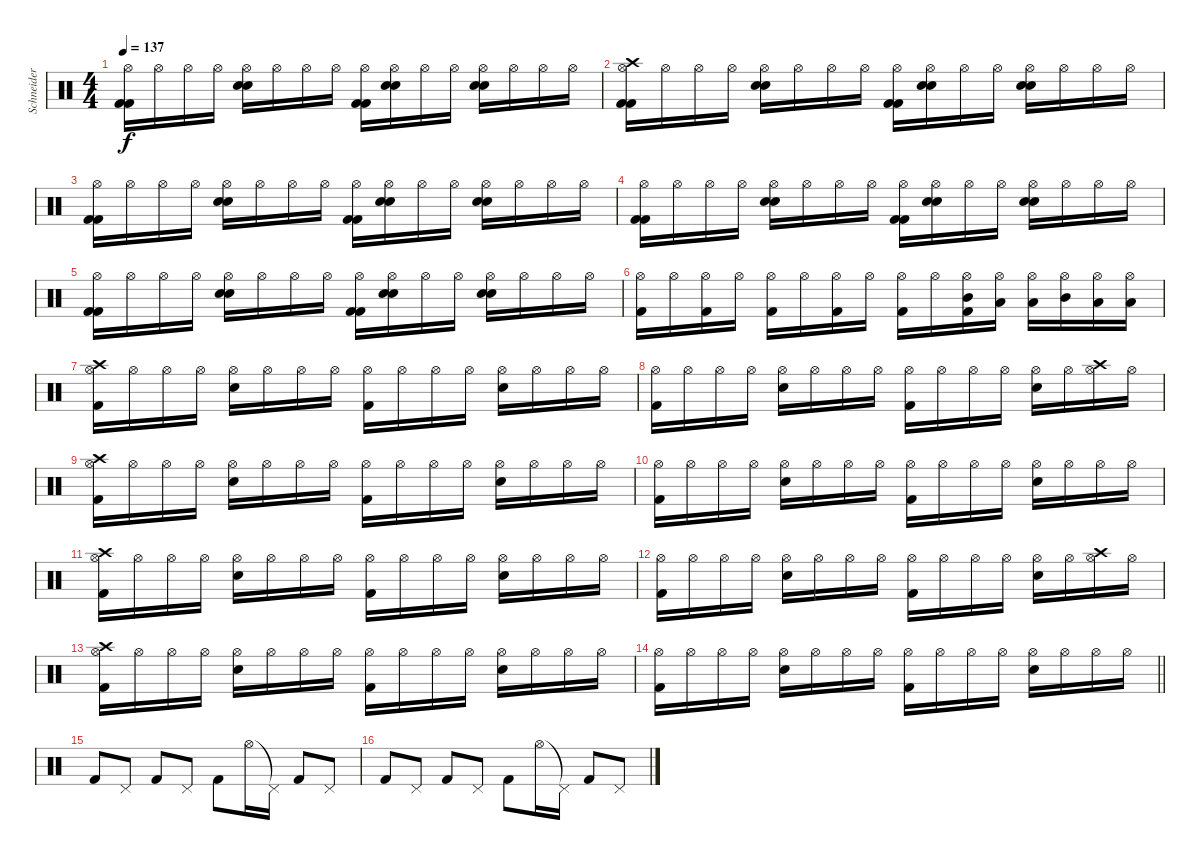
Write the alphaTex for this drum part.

\track ("Schneider" "Schneider") {instrument percussion}
\staff {score}
\articulation defaults
\ts (4 4)
\tempo 137
\clef neutral
\ks c
("Hi-Hat (open)" "Kick (hit) 2" "Kick (hit) 2").16{dy f} "Hi-Hat (open)".16 "Hi-Hat (open)".16 "Hi-Hat (open)".16 ("Hi-Hat (open)" "Electric Snare (hit)" "Electric Snare (hit)").16 "Hi-Hat (open)".16 "Hi-Hat (open)".16 "Hi-Hat (open)".16 ("Hi-Hat (open)" "Kick (hit) 2" "Kick (hit) 2").16 ("Hi-Hat (open)" "Electric Snare (hit)" "Electric Snare (hit)").16 "Hi-Hat (open)".16 "Hi-Hat (open)".16 ("Hi-Hat (open)" "Electric Snare (hit)" "Electric Snare (hit)").16 "Hi-Hat (open)".16 "Hi-Hat (open)".16 "Hi-Hat (open)".16 |
("Crash high (hit)" "Hi-Hat (open)" "Kick (hit) 2" "Kick (hit) 2").16 "Hi-Hat (open)".16 "Hi-Hat (open)".16 "Hi-Hat (open)".16 ("Hi-Hat (open)" "Electric Snare (hit)" "Electric Snare (hit)").16 "Hi-Hat (open)".16 "Hi-Hat (open)".16 "Hi-Hat (open)".16 ("Hi-Hat (open)" "Kick (hit) 2" "Kick (hit) 2").16 ("Hi-Hat (open)" "Electric Snare (hit)" "Electric Snare (hit)").16 "Hi-Hat (open)".16 "Hi-Hat (open)".16 ("Hi-Hat (open)" "Electric Snare (hit)" "Electric Snare (hit)").16 "Hi-Hat (open)".16 "Hi-Hat (open)".16 "Hi-Hat (open)".16 |
("Hi-Hat (open)" "Kick (hit) 2" "Kick (hit) 2").16 "Hi-Hat (open)".16 "Hi-Hat (open)".16 "Hi-Hat (open)".16 ("Hi-Hat (open)" "Electric Snare (hit)" "Electric Snare (hit)").16 "Hi-Hat (open)".16 "Hi-Hat (open)".16 "Hi-Hat (open)".16 ("Hi-Hat (open)" "Kick (hit) 2" "Kick (hit) 2").16 ("Hi-Hat (open)" "Electric Snare (hit)" "Electric Snare (hit)").16 "Hi-Hat (open)".16 "Hi-Hat (open)".16 ("Hi-Hat (open)" "Electric Snare (hit)" "Electric Snare (hit)").16 "Hi-Hat (open)".16 "Hi-Hat (open)".16 "Hi-Hat (open)".16 |
("Hi-Hat (open)" "Kick (hit) 2" "Kick (hit) 2").16 "Hi-Hat (open)".16 "Hi-Hat (open)".16 "Hi-Hat (open)".16 ("Hi-Hat (open)" "Electric Snare (hit)" "Electric Snare (hit)").16 "Hi-Hat (open)".16 "Hi-Hat (open)".16 "Hi-Hat (open)".16 ("Hi-Hat (open)" "Kick (hit) 2" "Kick (hit) 2").16 ("Hi-Hat (open)" "Electric Snare (hit)" "Electric Snare (hit)").16 "Hi-Hat (open)".16 "Hi-Hat (open)".16 ("Hi-Hat (open)" "Electric Snare (hit)" "Electric Snare (hit)").16 "Hi-Hat (open)".16 "Hi-Hat (open)".16 "Hi-Hat (open)".16 |
("Hi-Hat (open)" "Kick (hit) 2" "Kick (hit) 2").16 "Hi-Hat (open)".16 "Hi-Hat (open)".16 "Hi-Hat (open)".16 ("Hi-Hat (open)" "Electric Snare (hit)" "Electric Snare (hit)").16 "Hi-Hat (open)".16 "Hi-Hat (open)".16 "Hi-Hat (open)".16 ("Hi-Hat (open)" "Kick (hit) 2" "Kick (hit) 2").16 ("Hi-Hat (open)" "Electric Snare (hit)" "Electric Snare (hit)").16 "Hi-Hat (open)".16 "Hi-Hat (open)".16 ("Hi-Hat (open)" "Electric Snare (hit)" "Electric Snare (hit)").16 "Hi-Hat (open)".16 "Hi-Hat (open)".16 "Hi-Hat (open)".16 |
("Hi-Hat (open)" "Kick (hit) 2").16 "Hi-Hat (open)".16 ("Hi-Hat (open)" "Kick (hit) 2").16 "Hi-Hat (open)".16 ("Hi-Hat (open)" "Kick (hit) 2").16 "Hi-Hat (open)".16 ("Hi-Hat (open)" "Kick (hit) 2").16 "Hi-Hat (open)".16 ("Hi-Hat (open)" "Kick (hit) 2").16 "Hi-Hat (open)".16 ("Hi-Hat (open)" "Mid Tom (hit)" "Kick (hit) 2").16 ("Hi-Hat (open)" "Low Tom (hit)").16 ("Hi-Hat (open)" "Low Floor Tom (hit)").16 ("Hi-Hat (open)" "Mid Tom (hit)").16 ("Hi-Hat (open)" "Low Tom (hit)").16 ("Hi-Hat (open)" "Low Floor Tom (hit)").16 |
("Crash high (hit)" "Hi-Hat (open)" "Kick (hit) 2").16 "Hi-Hat (open)".16 "Hi-Hat (open)".16 "Hi-Hat (open)".16 ("Hi-Hat (open)" "Electric Snare (hit)").16 "Hi-Hat (open)".16 "Hi-Hat (open)".16 "Hi-Hat (open)".16 ("Hi-Hat (open)" "Kick (hit) 2").16 "Hi-Hat (open)".16 "Hi-Hat (open)".16 "Hi-Hat (open)".16 ("Hi-Hat (open)" "Electric Snare (hit)").16 "Hi-Hat (open)".16 "Hi-Hat (open)".16 "Hi-Hat (open)".16 |
("Hi-Hat (open)" "Kick (hit) 2").16 "Hi-Hat (open)".16 "Hi-Hat (open)".16 "Hi-Hat (open)".16 ("Hi-Hat (open)" "Electric Snare (hit)").16 "Hi-Hat (open)".16 "Hi-Hat (open)".16 "Hi-Hat (open)".16 ("Hi-Hat (open)" "Kick (hit) 2").16 "Hi-Hat (open)".16 "Hi-Hat (open)".16 "Hi-Hat (open)".16 ("Hi-Hat (open)" "Electric Snare (hit)").16 "Hi-Hat (open)".16 ("Crash high (hit)" "Hi-Hat (open)").16 "Hi-Hat (open)".16 |
("Crash high (hit)" "Hi-Hat (open)" "Kick (hit) 2").16 "Hi-Hat (open)".16 "Hi-Hat (open)".16 "Hi-Hat (open)".16 ("Hi-Hat (open)" "Electric Snare (hit)").16 "Hi-Hat (open)".16 "Hi-Hat (open)".16 "Hi-Hat (open)".16 ("Hi-Hat (open)" "Kick (hit) 2").16 "Hi-Hat (open)".16 "Hi-Hat (open)".16 "Hi-Hat (open)".16 ("Hi-Hat (open)" "Electric Snare (hit)").16 "Hi-Hat (open)".16 "Hi-Hat (open)".16 "Hi-Hat (open)".16 |
("Hi-Hat (open)" "Kick (hit) 2").16 "Hi-Hat (open)".16 "Hi-Hat (open)".16 "Hi-Hat (open)".16 ("Hi-Hat (open)" "Electric Snare (hit)").16 "Hi-Hat (open)".16 "Hi-Hat (open)".16 "Hi-Hat (open)".16 ("Hi-Hat (open)" "Kick (hit) 2").16 "Hi-Hat (open)".16 "Hi-Hat (open)".16 "Hi-Hat (open)".16 ("Hi-Hat (open)" "Electric Snare (hit)").16 "Hi-Hat (open)".16 "Hi-Hat (open)".16 "Hi-Hat (open)".16 |
("Crash high (hit)" "Hi-Hat (open)" "Kick (hit) 2").16 "Hi-Hat (open)".16 "Hi-Hat (open)".16 "Hi-Hat (open)".16 ("Hi-Hat (open)" "Electric Snare (hit)").16 "Hi-Hat (open)".16 "Hi-Hat (open)".16 "Hi-Hat (open)".16 ("Hi-Hat (open)" "Kick (hit) 2").16 "Hi-Hat (open)".16 "Hi-Hat (open)".16 "Hi-Hat (open)".16 ("Hi-Hat (open)" "Electric Snare (hit)").16 "Hi-Hat (open)".16 "Hi-Hat (open)".16 "Hi-Hat (open)".16 |
("Hi-Hat (open)" "Kick (hit) 2").16 "Hi-Hat (open)".16 "Hi-Hat (open)".16 "Hi-Hat (open)".16 ("Hi-Hat (open)" "Electric Snare (hit)").16 "Hi-Hat (open)".16 "Hi-Hat (open)".16 "Hi-Hat (open)".16 ("Hi-Hat (open)" "Kick (hit) 2").16 "Hi-Hat (open)".16 "Hi-Hat (open)".16 "Hi-Hat (open)".16 ("Hi-Hat (open)" "Electric Snare (hit)").16 "Hi-Hat (open)".16 ("Crash high (hit)" "Hi-Hat (open)").16 "Hi-Hat (open)".16 |
("Crash high (hit)" "Hi-Hat (open)" "Kick (hit) 2").16 "Hi-Hat (open)".16 "Hi-Hat (open)".16 "Hi-Hat (open)".16 ("Hi-Hat (open)" "Electric Snare (hit)").16 "Hi-Hat (open)".16 "Hi-Hat (open)".16 "Hi-Hat (open)".16 ("Hi-Hat (open)" "Kick (hit) 2").16 "Hi-Hat (open)".16 "Hi-Hat (open)".16 "Hi-Hat (open)".16 ("Hi-Hat (open)" "Electric Snare (hit)").16 "Hi-Hat (open)".16 "Hi-Hat (open)".16 "Hi-Hat (open)".16 |
\barLineRight lightlight
("Hi-Hat (open)" "Kick (hit) 2").16 "Hi-Hat (open)".16 "Hi-Hat (open)".16 "Hi-Hat (open)".16 ("Hi-Hat (open)" "Electric Snare (hit)").16 "Hi-Hat (open)".16 "Hi-Hat (open)".16 "Hi-Hat (open)".16 ("Hi-Hat (open)" "Kick (hit) 2").16 "Hi-Hat (open)".16 "Hi-Hat (open)".16 "Hi-Hat (open)".16 ("Hi-Hat (open)" "Electric Snare (hit)").16 "Hi-Hat (open)".16 "Hi-Hat (open)".16 "Hi-Hat (open)".16 |
"Kick (hit) 2".8 "Pedal Hi-Hat (hit)".8 "Kick (hit) 2".8 "Pedal Hi-Hat (hit)".8 "Kick (hit) 2".8 "Hi-Hat (open)".16 "Pedal Hi-Hat (hit)"{t}.16 "Kick (hit) 2".8 "Pedal Hi-Hat (hit)".8 |
"Kick (hit) 2".8 "Pedal Hi-Hat (hit)".8 "Kick (hit) 2".8 "Pedal Hi-Hat (hit)".8 "Kick (hit) 2".8 "Hi-Hat (open)".16 "Pedal Hi-Hat (hit)"{t}.16 "Kick (hit) 2".8 "Pedal Hi-Hat (hit)".8
